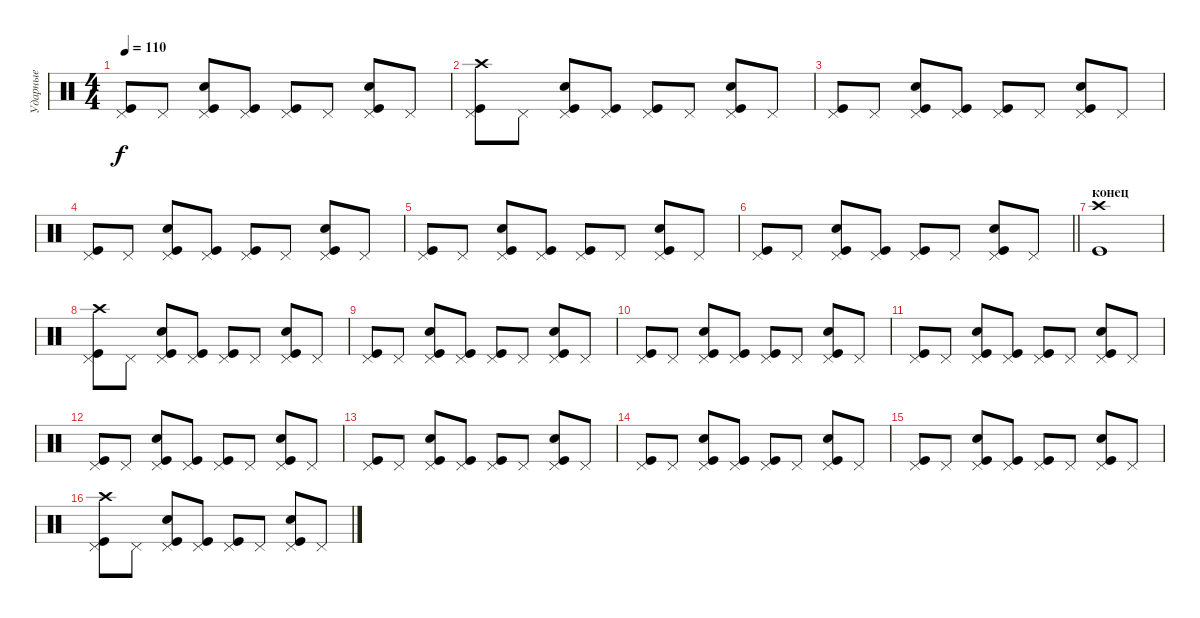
\track ("Ударные" "Ударные") {instrument percussion}
\staff {score}
\articulation defaults
\ts (4 4)
\tempo 110
\clef neutral
\ks c
("Pedal Hi-Hat (hit)" "Kick (hit)").8{dy f} "Pedal Hi-Hat (hit)".8 ("Pedal Hi-Hat (hit)" "Kick (hit)" "Snare (hit) 2").8 ("Pedal Hi-Hat (hit)" "Kick (hit)").8 ("Pedal Hi-Hat (hit)" "Kick (hit)").8 "Pedal Hi-Hat (hit)".8 ("Pedal Hi-Hat (hit)" "Kick (hit)" "Snare (hit) 2").8 "Pedal Hi-Hat (hit)".8 |
("Pedal Hi-Hat (hit)" "Kick (hit)" "Crash high (hit)").8 "Pedal Hi-Hat (hit)".8 ("Pedal Hi-Hat (hit)" "Kick (hit)" "Snare (hit) 2").8 ("Pedal Hi-Hat (hit)" "Kick (hit)").8 ("Pedal Hi-Hat (hit)" "Kick (hit)").8 "Pedal Hi-Hat (hit)".8 ("Pedal Hi-Hat (hit)" "Kick (hit)" "Snare (hit) 2").8 "Pedal Hi-Hat (hit)".8 |
("Pedal Hi-Hat (hit)" "Kick (hit)").8 "Pedal Hi-Hat (hit)".8 ("Pedal Hi-Hat (hit)" "Kick (hit)" "Snare (hit) 2").8 ("Pedal Hi-Hat (hit)" "Kick (hit)").8 ("Pedal Hi-Hat (hit)" "Kick (hit)").8 "Pedal Hi-Hat (hit)".8 ("Pedal Hi-Hat (hit)" "Kick (hit)" "Snare (hit) 2").8 "Pedal Hi-Hat (hit)".8 |
("Pedal Hi-Hat (hit)" "Kick (hit)").8 "Pedal Hi-Hat (hit)".8 ("Pedal Hi-Hat (hit)" "Kick (hit)" "Snare (hit) 2").8 ("Pedal Hi-Hat (hit)" "Kick (hit)").8 ("Pedal Hi-Hat (hit)" "Kick (hit)").8 "Pedal Hi-Hat (hit)".8 ("Pedal Hi-Hat (hit)" "Kick (hit)" "Snare (hit) 2").8 "Pedal Hi-Hat (hit)".8 |
("Pedal Hi-Hat (hit)" "Kick (hit)").8 "Pedal Hi-Hat (hit)".8 ("Pedal Hi-Hat (hit)" "Kick (hit)" "Snare (hit) 2").8 ("Pedal Hi-Hat (hit)" "Kick (hit)").8 ("Pedal Hi-Hat (hit)" "Kick (hit)").8 "Pedal Hi-Hat (hit)".8 ("Pedal Hi-Hat (hit)" "Kick (hit)" "Snare (hit) 2").8 "Pedal Hi-Hat (hit)".8 |
\barLineRight lightlight
("Pedal Hi-Hat (hit)" "Kick (hit)").8 "Pedal Hi-Hat (hit)".8 ("Pedal Hi-Hat (hit)" "Kick (hit)" "Snare (hit) 2").8 ("Pedal Hi-Hat (hit)" "Kick (hit)").8 ("Pedal Hi-Hat (hit)" "Kick (hit)").8 "Pedal Hi-Hat (hit)".8 ("Pedal Hi-Hat (hit)" "Kick (hit)" "Snare (hit) 2").8 "Pedal Hi-Hat (hit)".8 |
\section ("" "конец")
("Kick (hit)" "Crash high (hit)").1 |
("Pedal Hi-Hat (hit)" "Kick (hit)" "Crash high (hit)").8 "Pedal Hi-Hat (hit)".8 ("Pedal Hi-Hat (hit)" "Kick (hit)" "Snare (hit) 2").8 ("Pedal Hi-Hat (hit)" "Kick (hit)").8 ("Pedal Hi-Hat (hit)" "Kick (hit)").8 "Pedal Hi-Hat (hit)".8 ("Pedal Hi-Hat (hit)" "Kick (hit)" "Snare (hit) 2").8 "Pedal Hi-Hat (hit)".8 |
("Pedal Hi-Hat (hit)" "Kick (hit)").8 "Pedal Hi-Hat (hit)".8 ("Pedal Hi-Hat (hit)" "Kick (hit)" "Snare (hit) 2").8 ("Pedal Hi-Hat (hit)" "Kick (hit)").8 ("Pedal Hi-Hat (hit)" "Kick (hit)").8 "Pedal Hi-Hat (hit)".8 ("Pedal Hi-Hat (hit)" "Kick (hit)" "Snare (hit) 2").8 "Pedal Hi-Hat (hit)".8 |
("Pedal Hi-Hat (hit)" "Kick (hit)").8 "Pedal Hi-Hat (hit)".8 ("Pedal Hi-Hat (hit)" "Kick (hit)" "Snare (hit) 2").8 ("Pedal Hi-Hat (hit)" "Kick (hit)").8 ("Pedal Hi-Hat (hit)" "Kick (hit)").8 "Pedal Hi-Hat (hit)".8 ("Pedal Hi-Hat (hit)" "Kick (hit)" "Snare (hit) 2").8 "Pedal Hi-Hat (hit)".8 |
("Pedal Hi-Hat (hit)" "Kick (hit)").8 "Pedal Hi-Hat (hit)".8 ("Pedal Hi-Hat (hit)" "Kick (hit)" "Snare (hit) 2").8 ("Pedal Hi-Hat (hit)" "Kick (hit)").8 ("Pedal Hi-Hat (hit)" "Kick (hit)").8 "Pedal Hi-Hat (hit)".8 ("Pedal Hi-Hat (hit)" "Kick (hit)" "Snare (hit) 2").8 "Pedal Hi-Hat (hit)".8 |
("Pedal Hi-Hat (hit)" "Kick (hit)").8 "Pedal Hi-Hat (hit)".8 ("Pedal Hi-Hat (hit)" "Kick (hit)" "Snare (hit) 2").8 ("Pedal Hi-Hat (hit)" "Kick (hit)").8 ("Pedal Hi-Hat (hit)" "Kick (hit)").8 "Pedal Hi-Hat (hit)".8 ("Pedal Hi-Hat (hit)" "Kick (hit)" "Snare (hit) 2").8 "Pedal Hi-Hat (hit)".8 |
("Pedal Hi-Hat (hit)" "Kick (hit)").8 "Pedal Hi-Hat (hit)".8 ("Pedal Hi-Hat (hit)" "Kick (hit)" "Snare (hit) 2").8 ("Pedal Hi-Hat (hit)" "Kick (hit)").8 ("Pedal Hi-Hat (hit)" "Kick (hit)").8 "Pedal Hi-Hat (hit)".8 ("Pedal Hi-Hat (hit)" "Kick (hit)" "Snare (hit) 2").8 "Pedal Hi-Hat (hit)".8 |
("Pedal Hi-Hat (hit)" "Kick (hit)").8 "Pedal Hi-Hat (hit)".8 ("Pedal Hi-Hat (hit)" "Kick (hit)" "Snare (hit) 2").8 ("Pedal Hi-Hat (hit)" "Kick (hit)").8 ("Pedal Hi-Hat (hit)" "Kick (hit)").8 "Pedal Hi-Hat (hit)".8 ("Pedal Hi-Hat (hit)" "Kick (hit)" "Snare (hit) 2").8 "Pedal Hi-Hat (hit)".8 |
("Pedal Hi-Hat (hit)" "Kick (hit)").8 "Pedal Hi-Hat (hit)".8 ("Pedal Hi-Hat (hit)" "Kick (hit)" "Snare (hit) 2").8 ("Pedal Hi-Hat (hit)" "Kick (hit)").8 ("Pedal Hi-Hat (hit)" "Kick (hit)").8 "Pedal Hi-Hat (hit)".8 ("Pedal Hi-Hat (hit)" "Kick (hit)" "Snare (hit) 2").8 "Pedal Hi-Hat (hit)".8 |
("Pedal Hi-Hat (hit)" "Kick (hit)" "Crash high (hit)").8 "Pedal Hi-Hat (hit)".8 ("Pedal Hi-Hat (hit)" "Kick (hit)" "Snare (hit) 2").8 ("Pedal Hi-Hat (hit)" "Kick (hit)").8 ("Pedal Hi-Hat (hit)" "Kick (hit)").8 "Pedal Hi-Hat (hit)".8 ("Pedal Hi-Hat (hit)" "Kick (hit)" "Snare (hit) 2").8 "Pedal Hi-Hat (hit)".8
